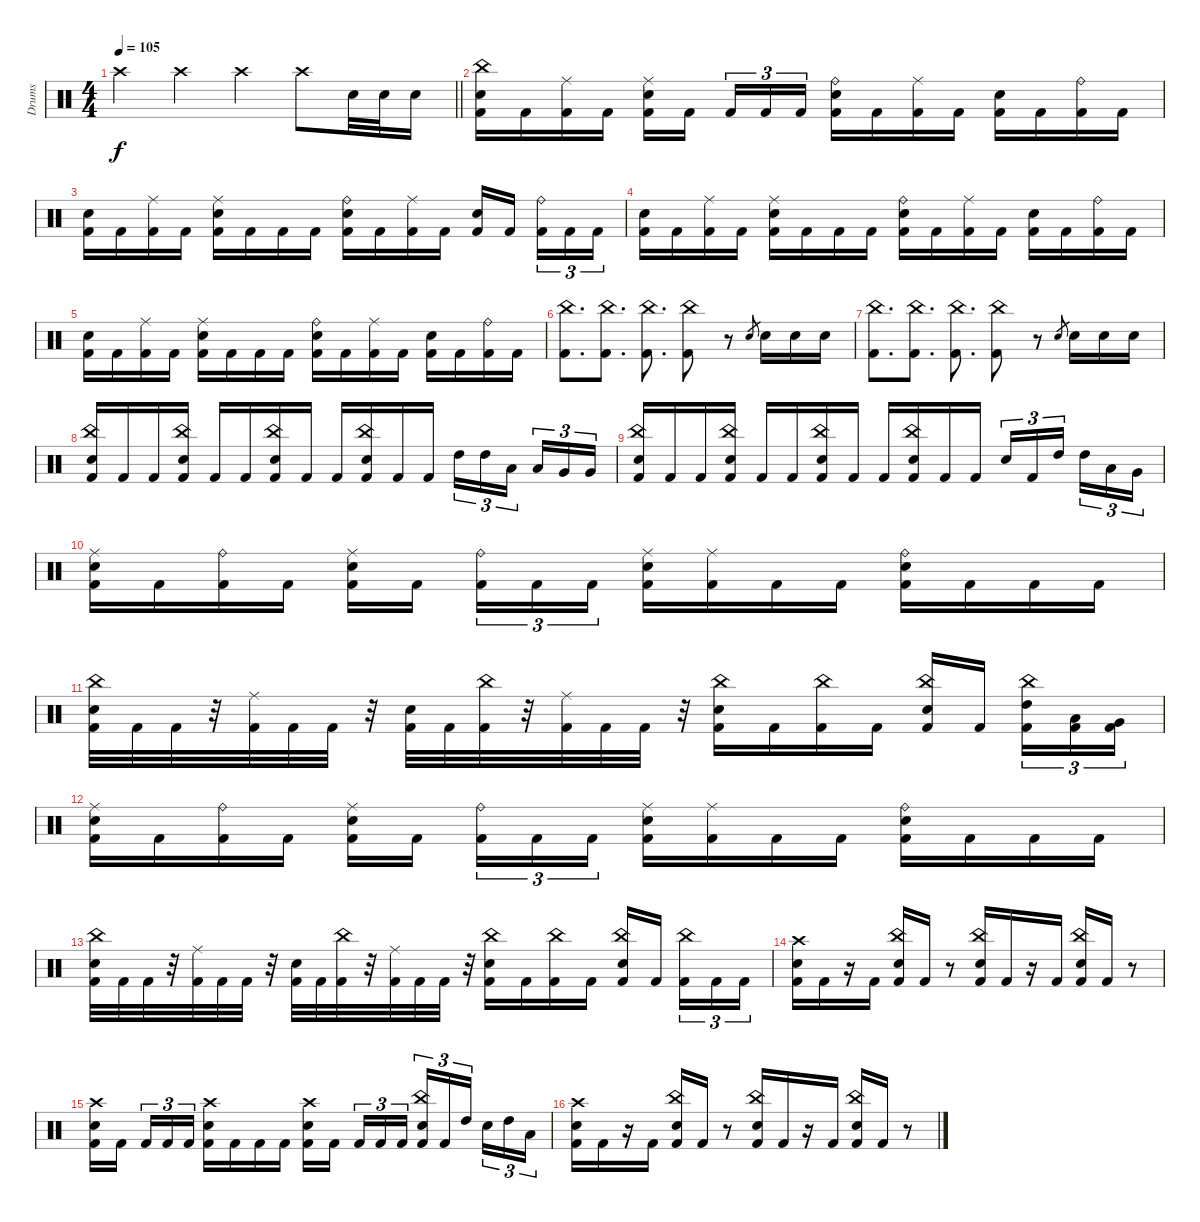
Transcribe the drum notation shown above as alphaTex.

\track ("Drums" "Drums") {instrument percussion}
\staff {score}
\articulation defaults
\ts (4 4)
\tempo 105
\clef neutral
\barLineRight lightlight
\ks c "Crash high (hit)".4{dy f} "Crash high (hit)".4 "Crash high (hit)".4 "Crash high (hit)".8 "Snare (hit) 2".32 "Snare (hit) 2".32 "Snare (hit) 2".16
|
("China (hit)" "Snare (hit) 2" "Kick (hit) 2").16 "Kick (hit) 2".16 ("Ride (middle)" "Kick (hit) 2").16 "Kick (hit) 2".16 ("Ride (middle)" "Snare (hit) 2" "Kick (hit) 2").16 "Kick (hit) 2".16{beam splitsecondary} "Kick (hit) 2".16{tu (3 2)} "Kick (hit) 2".16{tu (3 2)} "Kick (hit) 2".16{tu (3 2)} ("Ride (bell)" "Snare (hit) 2" "Kick (hit) 2").16 "Kick (hit) 2".16 ("Ride (middle)" "Kick (hit) 2").16 "Kick (hit) 2".16 ("Snare (hit) 2" "Kick (hit) 2").16 "Kick (hit) 2".16 ("Ride (bell)" "Kick (hit) 2").16 "Kick (hit) 2".16 |
("Snare (hit) 2" "Kick (hit) 2").16 "Kick (hit) 2".16 ("Ride (middle)" "Kick (hit) 2").16 "Kick (hit) 2".16 ("Ride (middle)" "Snare (hit) 2" "Kick (hit) 2").16 "Kick (hit) 2".16 "Kick (hit) 2".16 "Kick (hit) 2".16 ("Ride (bell)" "Snare (hit) 2" "Kick (hit) 2").16 "Kick (hit) 2".16 ("Ride (middle)" "Kick (hit) 2").16 "Kick (hit) 2".16 ("Snare (hit) 2" "Kick (hit) 2").16 "Kick (hit) 2".16{beam splitsecondary} ("Ride (bell)" "Kick (hit) 2").16{tu (3 2)} "Kick (hit) 2".16{tu (3 2)} "Kick (hit) 2".16{tu (3 2)} |
("Snare (hit) 2" "Kick (hit) 2").16 "Kick (hit) 2".16 ("Ride (middle)" "Kick (hit) 2").16 "Kick (hit) 2".16 ("Ride (middle)" "Snare (hit) 2" "Kick (hit) 2").16 "Kick (hit) 2".16 "Kick (hit) 2".16 "Kick (hit) 2".16 ("Ride (bell)" "Snare (hit) 2" "Kick (hit) 2").16 "Kick (hit) 2".16 ("Ride (middle)" "Kick (hit) 2").16 "Kick (hit) 2".16 ("Snare (hit) 2" "Kick (hit) 2").16 "Kick (hit) 2".16 ("Ride (bell)" "Kick (hit) 2").16 "Kick (hit) 2".16 |
("Snare (hit) 2" "Kick (hit) 2").16 "Kick (hit) 2".16 ("Ride (middle)" "Kick (hit) 2").16 "Kick (hit) 2".16 ("Ride (middle)" "Snare (hit) 2" "Kick (hit) 2").16 "Kick (hit) 2".16 "Kick (hit) 2".16 "Kick (hit) 2".16 ("Ride (bell)" "Snare (hit) 2" "Kick (hit) 2").16 "Kick (hit) 2".16 ("Ride (middle)" "Kick (hit) 2").16 "Kick (hit) 2".16 ("Snare (hit) 2" "Kick (hit) 2").16 "Kick (hit) 2".16 ("Ride (bell)" "Kick (hit) 2").16 "Kick (hit) 2".16 |
("China (hit)" "Kick (hit) 2").8{d} ("China (hit)" "Kick (hit) 2").8{d} ("China (hit)" "Kick (hit) 2").8{d} ("China (hit)" "Kick (hit) 2").8 r.8 "Snare (hit) 2".8{gr} "Snare (hit) 2".16 "Snare (hit) 2".16 "Snare (hit) 2".16 |
("China (hit)" "Kick (hit) 2").8{d} ("China (hit)" "Kick (hit) 2").8{d} ("China (hit)" "Kick (hit) 2").8{d} ("China (hit)" "Kick (hit) 2").8 r.8 "Snare (hit) 2".8{gr} "Snare (hit) 2".16 "Snare (hit) 2".16 "Snare (hit) 2".16 |
("China (hit)" "Snare (hit) 2" "Kick (hit) 2").16 "Kick (hit) 2".16 "Kick (hit) 2".16 ("China (hit)" "Snare (hit) 2" "Kick (hit) 2").16 "Kick (hit) 2".16 "Kick (hit) 2".16 ("China (hit)" "Snare (hit) 2" "Kick (hit) 2").16 "Kick (hit) 2".16 "Kick (hit) 2".16 ("China (hit)" "Snare (hit) 2" "Kick (hit) 2").16 "Kick (hit) 2".16 "Kick (hit) 2".16 "High Tom (hit)".16{tu (3 2)} "High Tom (hit)".16{tu (3 2)} "Low Tom (hit)".16{tu (3 2) beam splitsecondary} "Low Tom (hit)".16{tu (3 2)} "Very Low Tom (hit)".16{tu (3 2)} "Very Low Tom (hit)".16{tu (3 2)} |
("China (hit)" "Snare (hit) 2" "Kick (hit) 2").16 "Kick (hit) 2".16 "Kick (hit) 2".16 ("China (hit)" "Snare (hit) 2" "Kick (hit) 2").16 "Kick (hit) 2".16 "Kick (hit) 2".16 ("China (hit)" "Snare (hit) 2" "Kick (hit) 2").16 "Kick (hit) 2".16 "Kick (hit) 2".16 ("China (hit)" "Snare (hit) 2" "Kick (hit) 2").16 "Kick (hit) 2".16 "Kick (hit) 2".16 "Snare (hit) 2".16{tu (3 2)} "Kick (hit) 2".16{tu (3 2)} "High Tom (hit)".16{tu (3 2) beam splitsecondary} "High Tom (hit)".16{tu (3 2)} "Low Tom (hit)".16{tu (3 2)} "Very Low Tom (hit)".16{tu (3 2)} |
("Ride (middle)" "Snare (hit) 2" "Kick (hit) 2").16 "Kick (hit) 2".16 ("Ride (bell)" "Kick (hit) 2").16 "Kick (hit) 2".16 ("Ride (middle)" "Snare (hit) 2" "Kick (hit) 2").16 "Kick (hit) 2".16{beam splitsecondary} ("Ride (bell)" "Kick (hit) 2").16{tu (3 2)} "Kick (hit) 2".16{tu (3 2)} "Kick (hit) 2".16{tu (3 2)} ("Ride (middle)" "Snare (hit) 2" "Kick (hit) 2").16 ("Ride (middle)" "Kick (hit) 2").16 "Kick (hit) 2".16 "Kick (hit) 2".16 ("Ride (bell)" "Snare (hit) 2" "Kick (hit) 2").16 "Kick (hit) 2".16 "Kick (hit) 2".16 "Kick (hit) 2".16 |
("China (hit)" "Snare (hit) 2" "Kick (hit) 2").32 "Kick (hit) 2".32 "Kick (hit) 2".32 r.32 ("Ride (middle)" "Kick (hit) 2").32 "Kick (hit) 2".32 "Kick (hit) 2".32 r.32 ("Snare (hit) 2" "Kick (hit) 2").32 "Kick (hit) 2".32 ("China (hit)" "Kick (hit) 2").32 r.32 ("Ride (middle)" "Kick (hit) 2").32 "Kick (hit) 2".32 "Kick (hit) 2".32 r.32 ("China (hit)" "Snare (hit) 2" "Kick (hit) 2").16 "Kick (hit) 2".16 ("China (hit)" "Kick (hit) 2").16 "Kick (hit) 2".16 ("China (hit)" "Snare (hit) 2" "Kick (hit) 2").16 "Kick (hit) 2".16{beam splitsecondary} ("China (hit)" "High Tom (hit)" "Kick (hit) 2").16{tu (3 2)} ("Low Tom (hit)" "Kick (hit) 2").16{tu (3 2)} ("Very Low Tom (hit)" "Kick (hit) 2").16{tu (3 2)} |
("Ride (middle)" "Snare (hit) 2" "Kick (hit) 2").16 "Kick (hit) 2".16 ("Ride (bell)" "Kick (hit) 2").16 "Kick (hit) 2".16 ("Ride (middle)" "Snare (hit) 2" "Kick (hit) 2").16 "Kick (hit) 2".16{beam splitsecondary} ("Ride (bell)" "Kick (hit) 2").16{tu (3 2)} "Kick (hit) 2".16{tu (3 2)} "Kick (hit) 2".16{tu (3 2)} ("Ride (middle)" "Snare (hit) 2" "Kick (hit) 2").16 ("Ride (middle)" "Kick (hit) 2").16 "Kick (hit) 2".16 "Kick (hit) 2".16 ("Ride (bell)" "Snare (hit) 2" "Kick (hit) 2").16 "Kick (hit) 2".16 "Kick (hit) 2".16 "Kick (hit) 2".16 |
("China (hit)" "Snare (hit) 2" "Kick (hit) 2").32 "Kick (hit) 2".32 "Kick (hit) 2".32 r.32 ("Ride (middle)" "Kick (hit) 2").32 "Kick (hit) 2".32 "Kick (hit) 2".32 r.32 ("Snare (hit) 2" "Kick (hit) 2").32 "Kick (hit) 2".32 ("China (hit)" "Kick (hit) 2").32 r.32 ("Ride (middle)" "Kick (hit) 2").32 "Kick (hit) 2".32 "Kick (hit) 2".32 r.32 ("China (hit)" "Snare (hit) 2" "Kick (hit) 2").16 "Kick (hit) 2".16 ("China (hit)" "Kick (hit) 2").16 "Kick (hit) 2".16 ("China (hit)" "Snare (hit) 2" "Kick (hit) 2").16 "Kick (hit) 2".16{beam splitsecondary} ("China (hit)" "Kick (hit) 2").16{tu (3 2)} "Kick (hit) 2".16{tu (3 2)} "Kick (hit) 2".16{tu (3 2)} |
("Crash high (hit)" "Snare (hit) 2" "Kick (hit) 2").16 "Kick (hit) 2".16 r.16 "Kick (hit) 2".16 ("China (hit)" "Snare (hit) 2" "Kick (hit) 2").16 "Kick (hit) 2".16 r.8 ("China (hit)" "Snare (hit) 2" "Kick (hit) 2").16 "Kick (hit) 2".16 r.16 "Kick (hit) 2".16 ("China (hit)" "Snare (hit) 2" "Kick (hit) 2").16 "Kick (hit) 2".16 r.8 |
("Crash high (hit)" "Snare (hit) 2" "Kick (hit) 2").16 "Kick (hit) 2".16{beam splitsecondary} "Kick (hit) 2".16{tu (3 2)} "Kick (hit) 2".16{tu (3 2)} "Kick (hit) 2".16{tu (3 2)} ("Crash high (hit)" "Snare (hit) 2" "Kick (hit) 2").16 "Kick (hit) 2".16 "Kick (hit) 2".16 "Kick (hit) 2".16 ("Crash high (hit)" "Snare (hit) 2" "Kick (hit) 2").16 "Kick (hit) 2".16{beam splitsecondary} "Kick (hit) 2".16{tu (3 2)} "Kick (hit) 2".16{tu (3 2)} "Kick (hit) 2".16{tu (3 2)} ("China (hit)" "Snare (hit) 2" "Kick (hit) 2").16{tu (3 2)} "Kick (hit) 2".16{tu (3 2)} "High Tom (hit)".16{tu (3 2) beam splitsecondary} "Snare (hit) 2".16{tu (3 2)} "High Tom (hit)".16{tu (3 2)} "Low Tom (hit)".16{tu (3 2)} |
("Crash high (hit)" "Snare (hit) 2" "Kick (hit) 2").16 "Kick (hit) 2".16 r.16 "Kick (hit) 2".16 ("China (hit)" "Snare (hit) 2" "Kick (hit) 2").16 "Kick (hit) 2".16 r.8 ("China (hit)" "Snare (hit) 2" "Kick (hit) 2").16 "Kick (hit) 2".16 r.16 "Kick (hit) 2".16 ("China (hit)" "Snare (hit) 2" "Kick (hit) 2").16 "Kick (hit) 2".16 r.8
